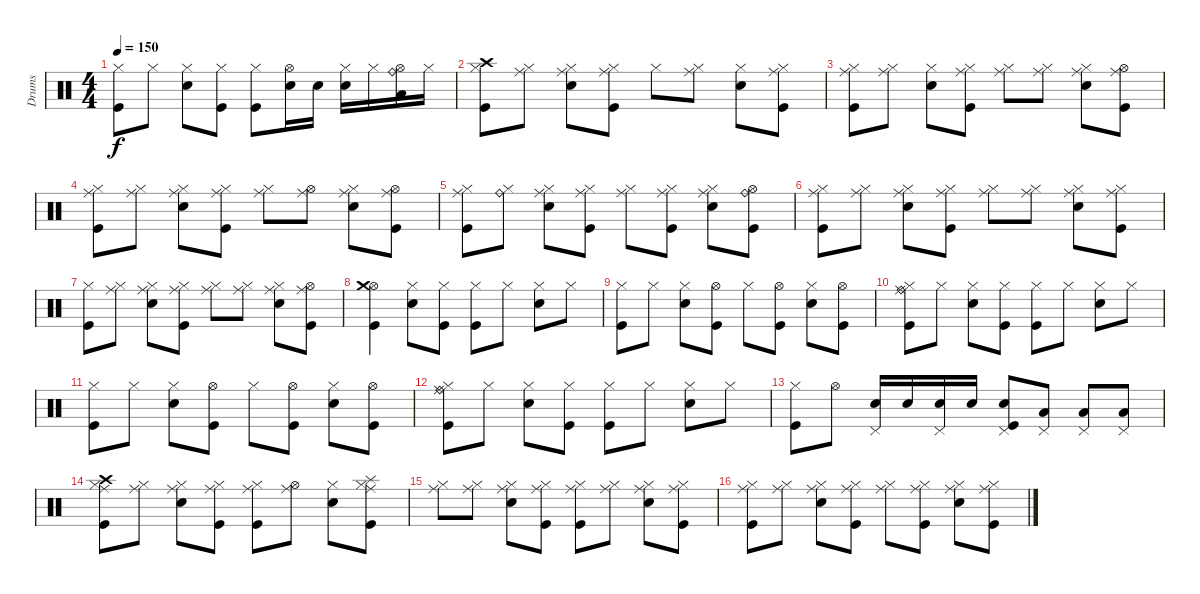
\track ("Drums" "Drums") {instrument percussion}
\staff {score}
\articulation defaults
\ts (4 4)
\tempo 150
\clef neutral
\ks c
("Kick (hit)" "Hi-Hat (closed)").8{dy f} "Hi-Hat (closed)".8 ("Snare (hit) 2" "Hi-Hat (closed)").8 ("Kick (hit)" "Hi-Hat (closed)").8 ("Kick (hit)" "Hi-Hat (closed)").8 ("Snare (hit) 2" "Hi-Hat (open)").16 "Snare (hit) 2".16 ("Snare (hit) 2" "Hi-Hat (closed)").16 "Hi-Hat (closed)".16 ("Low Floor Tom (hit)" "Hi-Hat (open)" "Ride (bell)").16 "Hi-Hat (closed)".16 |
("Kick (hit)" "Hi-Hat (closed)" "Crash high (hit)").8 ("Hi-Hat (closed)" "Ride (middle)").8 ("Snare (hit) 2" "Hi-Hat (closed)" "Ride (middle)").8 ("Hi-Hat (closed)" "Ride (middle)" "Kick (hit)").8 "Hi-Hat (closed)".8 ("Hi-Hat (closed)" "Ride (middle)").8 ("Snare (hit) 2" "Hi-Hat (closed)").8 ("Kick (hit)" "Hi-Hat (closed)" "Ride (middle)").8 |
("Kick (hit)" "Hi-Hat (closed)" "Ride (middle)").8 ("Hi-Hat (closed)" "Ride (middle)").8 ("Snare (hit) 2" "Hi-Hat (closed)").8 ("Kick (hit)" "Hi-Hat (closed)" "Ride (middle)").8 ("Hi-Hat (closed)" "Ride (middle)").8 ("Hi-Hat (closed)" "Ride (middle)").8 ("Snare (hit) 2" "Hi-Hat (closed)" "Ride (middle)").8 ("Kick (hit)" "Hi-Hat (open)" "Ride (middle)").8 |
("Hi-Hat (closed)" "Ride (middle)" "Kick (hit)").8 ("Hi-Hat (closed)" "Ride (middle)").8 ("Hi-Hat (closed)" "Ride (middle)" "Snare (hit) 2").8 ("Kick (hit)" "Hi-Hat (closed)" "Ride (middle)").8 ("Hi-Hat (closed)" "Ride (middle)").8 ("Hi-Hat (open)" "Ride (middle)").8 ("Snare (hit) 2" "Hi-Hat (closed)" "Ride (middle)").8 ("Kick (hit)" "Hi-Hat (open)" "Ride (middle)").8 |
("Hi-Hat (closed)" "Ride (middle)" "Kick (hit)").8 ("Hi-Hat (closed)" "Ride (bell)").8 ("Hi-Hat (closed)" "Ride (middle)" "Snare (hit) 2").8 ("Ride (middle)" "Kick (hit)" "Hi-Hat (closed)").8 ("Hi-Hat (closed)" "Ride (middle)").8 ("Kick (hit)" "Hi-Hat (closed)" "Ride (middle)").8 ("Snare (hit) 2" "Hi-Hat (closed)" "Ride (middle)").8 ("Kick (hit)" "Hi-Hat (open)" "Ride (bell)").8 |
("Ride (middle)" "Kick (hit)" "Hi-Hat (closed)").8 ("Hi-Hat (closed)" "Ride (middle)").8 ("Hi-Hat (closed)" "Ride (middle)" "Snare (hit) 2").8 ("Kick (hit)" "Hi-Hat (closed)" "Ride (middle)").8 ("Hi-Hat (closed)" "Ride (middle)").8 ("Hi-Hat (closed)" "Ride (middle)").8 ("Ride (middle)" "Snare (hit) 2" "Hi-Hat (closed)").8 ("Hi-Hat (closed)" "Ride (middle)" "Kick (hit)").8 |
("Kick (hit)" "Hi-Hat (closed)").8 ("Hi-Hat (closed)" "Ride (middle)").8 ("Snare (hit) 2" "Hi-Hat (closed)" "Ride (middle)").8 ("Ride (middle)" "Kick (hit)" "Hi-Hat (closed)").8 ("Hi-Hat (closed)" "Ride (middle)").8 ("Hi-Hat (closed)" "Ride (middle)").8 ("Snare (hit) 2" "Hi-Hat (closed)" "Ride (middle)").8 ("Hi-Hat (open)" "Ride (middle)" "Kick (hit)").8 |
("Kick (hit)" "Hi-Hat (open)" "Crash medium (hit)").4 ("Snare (hit) 2" "Hi-Hat (closed)").8 ("Kick (hit)" "Hi-Hat (closed)").8 ("Kick (hit)" "Hi-Hat (closed)").8 "Hi-Hat (closed)".8 ("Snare (hit) 2" "Hi-Hat (closed)").8 "Hi-Hat (closed)".8 |
("Kick (hit)" "Hi-Hat (closed)").8 "Hi-Hat (closed)".8 ("Snare (hit) 2" "Hi-Hat (closed)").8 ("Kick (hit)" "Hi-Hat (open)").8 "Hi-Hat (closed)".8 ("Kick (hit)" "Hi-Hat (open)").8 ("Snare (hit) 2" "Hi-Hat (closed)").8 ("Kick (hit)" "Hi-Hat (open)").8 |
("Kick (hit)" "Hi-Hat (closed)" "Ride (middle)" "Ride (bell)").8 "Hi-Hat (closed)".8 ("Snare (hit) 2" "Hi-Hat (closed)").8 ("Kick (hit)" "Hi-Hat (closed)").8 ("Kick (hit)" "Hi-Hat (closed)").8 "Hi-Hat (closed)".8 ("Snare (hit) 2" "Hi-Hat (closed)").8 "Hi-Hat (closed)".8 |
("Kick (hit)" "Hi-Hat (closed)").8 "Hi-Hat (closed)".8 ("Snare (hit) 2" "Hi-Hat (closed)").8 ("Kick (hit)" "Hi-Hat (open)").8 "Hi-Hat (closed)".8 ("Kick (hit)" "Hi-Hat (open)").8 ("Snare (hit) 2" "Hi-Hat (closed)").8 ("Kick (hit)" "Hi-Hat (open)").8 |
("Kick (hit)" "Hi-Hat (closed)" "Ride (middle)" "Ride (bell)").8 "Hi-Hat (closed)".8 ("Snare (hit) 2" "Hi-Hat (closed)").8 ("Kick (hit)" "Hi-Hat (closed)").8 ("Kick (hit)" "Hi-Hat (closed)").8 "Hi-Hat (closed)".8 ("Snare (hit) 2" "Hi-Hat (closed)").8 "Hi-Hat (closed)".8 |
("Kick (hit)" "Hi-Hat (closed)").8 "Hi-Hat (open)".8 ("Snare (hit) 2" "Pedal Hi-Hat (hit)").16 "Snare (hit) 2".16 ("Snare (hit) 2" "Pedal Hi-Hat (hit)").16 "Snare (hit) 2".16 ("Pedal Hi-Hat (hit)" "Kick (hit)" "Snare (hit) 2").8 ("Pedal Hi-Hat (hit)" "Low Tom (hit)").8 ("Low Floor Tom (hit)" "Pedal Hi-Hat (hit)").8 ("Low Floor Tom (hit)" "Pedal Hi-Hat (hit)").8 |
("Kick (hit)" "Hi-Hat (closed)" "Crash high (hit)" "Ride (middle)").8 ("Hi-Hat (closed)" "Ride (middle)").8 ("Ride (middle)" "Snare (hit) 2" "Hi-Hat (closed)").8 ("Kick (hit)" "Hi-Hat (closed)" "Ride (middle)").8 ("Kick (hit)" "Hi-Hat (closed)" "Ride (middle)").8 ("Hi-Hat (open)" "Ride (middle)").8 ("Snare (hit) 2" "Hi-Hat (closed)").8 ("Kick (hit)" "Hi-Hat (closed)" "Ride (middle)" "Splash (hit)").8 |
("Hi-Hat (closed)" "Ride (middle)").8 ("Hi-Hat (closed)" "Ride (middle)").8 ("Snare (hit) 2" "Hi-Hat (closed)" "Ride (middle)").8 ("Kick (hit)" "Hi-Hat (closed)" "Ride (middle)").8 ("Hi-Hat (closed)" "Ride (middle)" "Kick (hit)").8 ("Hi-Hat (closed)" "Ride (middle)").8 ("Snare (hit) 2" "Hi-Hat (closed)" "Ride (middle)").8 ("Kick (hit)" "Hi-Hat (closed)" "Ride (middle)").8 |
("Ride (middle)" "Kick (hit)" "Hi-Hat (closed)").8 ("Hi-Hat (closed)" "Ride (middle)").8 ("Ride (middle)" "Snare (hit) 2" "Hi-Hat (closed)").8 ("Hi-Hat (closed)" "Ride (middle)" "Kick (hit)").8 ("Hi-Hat (closed)" "Ride (middle)").8 ("Hi-Hat (closed)" "Ride (middle)" "Kick (hit)").8 ("Snare (hit) 2" "Hi-Hat (closed)" "Ride (middle)").8 ("Kick (hit)" "Hi-Hat (closed)" "Ride (middle)").8
